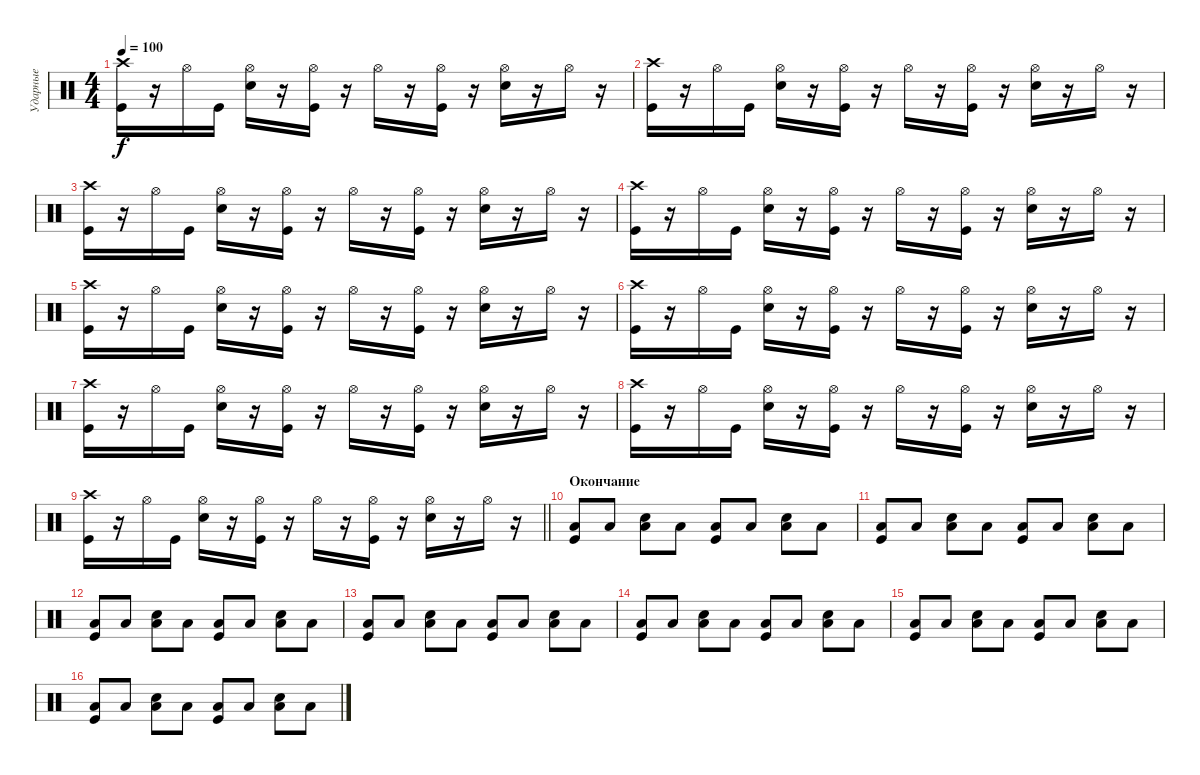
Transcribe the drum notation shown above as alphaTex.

\track ("Ударные" "Ударные") {instrument percussion}
\staff {score}
\articulation defaults
\ts (4 4)
\tempo 100
\clef neutral
\ks c
("Crash high (hit)" "Kick (hit)").16{dy f} r.16 "Hi-Hat (open)".16 "Kick (hit)".16 ("Electric Snare (hit)" "Hi-Hat (open)").16 r.16 ("Kick (hit)" "Hi-Hat (open)").16 r.16 "Hi-Hat (open)".16 r.16 ("Hi-Hat (open)" "Kick (hit)").16 r.16 ("Hi-Hat (open)" "Electric Snare (hit)").16 r.16 "Hi-Hat (open)".16 r.16 |
("Crash high (hit)" "Kick (hit)").16 r.16 "Hi-Hat (open)".16 "Kick (hit)".16 ("Electric Snare (hit)" "Hi-Hat (open)").16 r.16 ("Kick (hit)" "Hi-Hat (open)").16 r.16 "Hi-Hat (open)".16 r.16 ("Hi-Hat (open)" "Kick (hit)").16 r.16 ("Hi-Hat (open)" "Electric Snare (hit)").16 r.16 "Hi-Hat (open)".16 r.16 |
("Crash high (hit)" "Kick (hit)").16 r.16 "Hi-Hat (open)".16 "Kick (hit)".16 ("Electric Snare (hit)" "Hi-Hat (open)").16 r.16 ("Kick (hit)" "Hi-Hat (open)").16 r.16 "Hi-Hat (open)".16 r.16 ("Hi-Hat (open)" "Kick (hit)").16 r.16 ("Hi-Hat (open)" "Electric Snare (hit)").16 r.16 "Hi-Hat (open)".16 r.16 |
("Crash high (hit)" "Kick (hit)").16 r.16 "Hi-Hat (open)".16 "Kick (hit)".16 ("Electric Snare (hit)" "Hi-Hat (open)").16 r.16 ("Kick (hit)" "Hi-Hat (open)").16 r.16 "Hi-Hat (open)".16 r.16 ("Hi-Hat (open)" "Kick (hit)").16 r.16 ("Hi-Hat (open)" "Electric Snare (hit)").16 r.16 "Hi-Hat (open)".16 r.16 |
("Crash high (hit)" "Kick (hit)").16 r.16 "Hi-Hat (open)".16 "Kick (hit)".16 ("Electric Snare (hit)" "Hi-Hat (open)").16 r.16 ("Kick (hit)" "Hi-Hat (open)").16 r.16 "Hi-Hat (open)".16 r.16 ("Hi-Hat (open)" "Kick (hit)").16 r.16 ("Hi-Hat (open)" "Electric Snare (hit)").16 r.16 "Hi-Hat (open)".16 r.16 |
("Crash high (hit)" "Kick (hit)").16 r.16 "Hi-Hat (open)".16 "Kick (hit)".16 ("Electric Snare (hit)" "Hi-Hat (open)").16 r.16 ("Kick (hit)" "Hi-Hat (open)").16 r.16 "Hi-Hat (open)".16 r.16 ("Hi-Hat (open)" "Kick (hit)").16 r.16 ("Hi-Hat (open)" "Electric Snare (hit)").16 r.16 "Hi-Hat (open)".16 r.16 |
("Crash high (hit)" "Kick (hit)").16 r.16 "Hi-Hat (open)".16 "Kick (hit)".16 ("Electric Snare (hit)" "Hi-Hat (open)").16 r.16 ("Kick (hit)" "Hi-Hat (open)").16 r.16 "Hi-Hat (open)".16 r.16 ("Hi-Hat (open)" "Kick (hit)").16 r.16 ("Hi-Hat (open)" "Electric Snare (hit)").16 r.16 "Hi-Hat (open)".16 r.16 |
("Crash high (hit)" "Kick (hit)").16 r.16 "Hi-Hat (open)".16 "Kick (hit)".16 ("Electric Snare (hit)" "Hi-Hat (open)").16 r.16 ("Kick (hit)" "Hi-Hat (open)").16 r.16 "Hi-Hat (open)".16 r.16 ("Hi-Hat (open)" "Kick (hit)").16 r.16 ("Hi-Hat (open)" "Electric Snare (hit)").16 r.16 "Hi-Hat (open)".16 r.16 |
\barLineRight lightlight
("Crash high (hit)" "Kick (hit)").16 r.16 "Hi-Hat (open)".16 "Kick (hit)".16 ("Electric Snare (hit)" "Hi-Hat (open)").16 r.16 ("Kick (hit)" "Hi-Hat (open)").16 r.16 "Hi-Hat (open)".16 r.16 ("Hi-Hat (open)" "Kick (hit)").16 r.16 ("Hi-Hat (open)" "Electric Snare (hit)").16 r.16 "Hi-Hat (open)".16 r.16 |
\section ("" "Окончание")
("Low Tom (hit)" "Kick (hit)").8 "Low Tom (hit)".8 ("Snare (hit) 2" "Low Tom (hit)").8 "Low Tom (hit)".8 ("Low Tom (hit)" "Kick (hit)").8 "Low Tom (hit)".8 ("Snare (hit) 2" "Low Tom (hit)").8 "Low Tom (hit)".8 |
("Low Tom (hit)" "Kick (hit)").8 "Low Tom (hit)".8 ("Snare (hit) 2" "Low Tom (hit)").8 "Low Tom (hit)".8 ("Low Tom (hit)" "Kick (hit)").8 "Low Tom (hit)".8 ("Snare (hit) 2" "Low Tom (hit)").8 "Low Tom (hit)".8 |
("Low Tom (hit)" "Kick (hit)").8 "Low Tom (hit)".8 ("Snare (hit) 2" "Low Tom (hit)").8 "Low Tom (hit)".8 ("Low Tom (hit)" "Kick (hit)").8 "Low Tom (hit)".8 ("Snare (hit) 2" "Low Tom (hit)").8 "Low Tom (hit)".8 |
("Low Tom (hit)" "Kick (hit)").8 "Low Tom (hit)".8 ("Snare (hit) 2" "Low Tom (hit)").8 "Low Tom (hit)".8 ("Low Tom (hit)" "Kick (hit)").8 "Low Tom (hit)".8 ("Snare (hit) 2" "Low Tom (hit)").8 "Low Tom (hit)".8 |
("Low Tom (hit)" "Kick (hit)").8 "Low Tom (hit)".8 ("Snare (hit) 2" "Low Tom (hit)").8 "Low Tom (hit)".8 ("Low Tom (hit)" "Kick (hit)").8 "Low Tom (hit)".8 ("Snare (hit) 2" "Low Tom (hit)").8 "Low Tom (hit)".8 |
("Low Tom (hit)" "Kick (hit)").8 "Low Tom (hit)".8 ("Snare (hit) 2" "Low Tom (hit)").8 "Low Tom (hit)".8 ("Low Tom (hit)" "Kick (hit)").8 "Low Tom (hit)".8 ("Snare (hit) 2" "Low Tom (hit)").8 "Low Tom (hit)".8 |
("Low Tom (hit)" "Kick (hit)").8 "Low Tom (hit)".8 ("Snare (hit) 2" "Low Tom (hit)").8 "Low Tom (hit)".8 ("Low Tom (hit)" "Kick (hit)").8 "Low Tom (hit)".8 ("Snare (hit) 2" "Low Tom (hit)").8 "Low Tom (hit)".8
